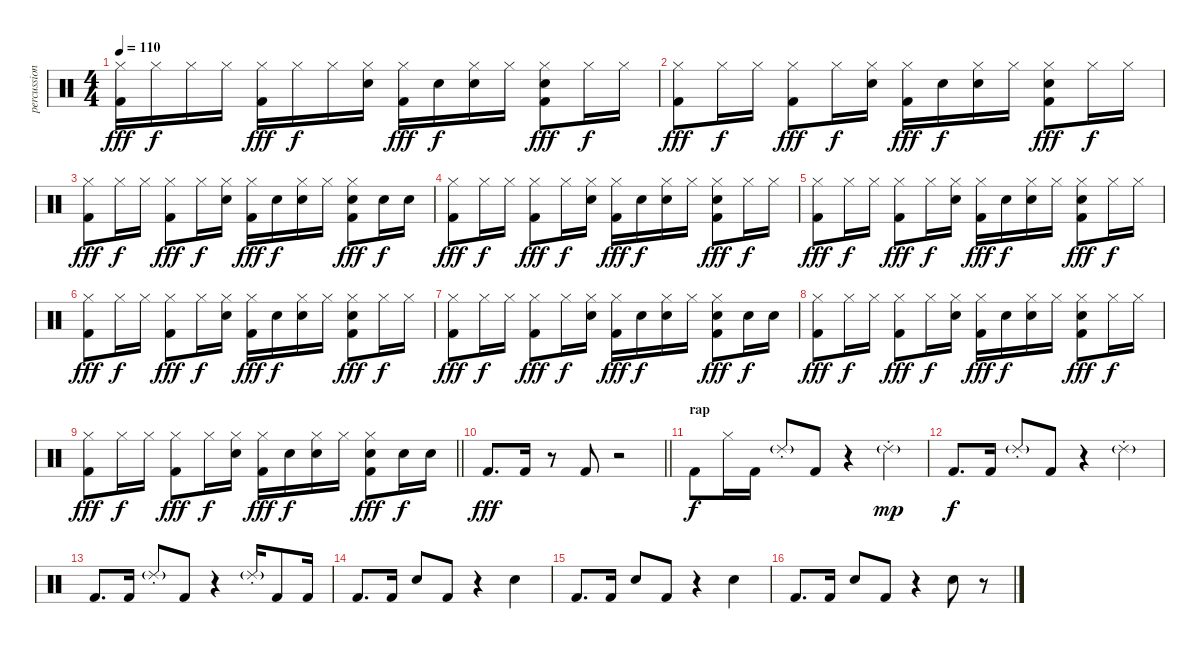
\track ("percussion []" "percussion") {instrument percussion}
\staff {score}
\articulation defaults
\ts (4 4)
\tempo 110
\clef neutral
\ks c
("Hi-Hat (closed)" "Kick (hit) 2").16{dy fff} "Hi-Hat (closed)".16{dy f} "Hi-Hat (closed)".16 "Hi-Hat (closed)".16 ("Hi-Hat (closed)" "Kick (hit) 2").16{dy fff} "Hi-Hat (closed)".16{dy f} "Hi-Hat (closed)".16 ("Electric Snare (hit)" "Hi-Hat (closed)").16 ("Hi-Hat (closed)" "Kick (hit) 2").16{dy fff} "Electric Snare (hit)".16{dy f} ("Electric Snare (hit)" "Hi-Hat (closed)").16 "Hi-Hat (closed)".16 ("Electric Snare (hit)" "Hi-Hat (closed)" "Kick (hit) 2").8{dy fff} "Hi-Hat (closed)".16{dy f} "Hi-Hat (closed)".16 |
("Hi-Hat (closed)" "Kick (hit) 2").8{dy fff} "Hi-Hat (closed)".16{dy f} "Hi-Hat (closed)".16 ("Hi-Hat (closed)" "Kick (hit) 2").8{dy fff} "Hi-Hat (closed)".16{dy f} ("Electric Snare (hit)" "Hi-Hat (closed)").16 ("Hi-Hat (closed)" "Kick (hit) 2").16{dy fff} "Electric Snare (hit)".16{dy f} ("Electric Snare (hit)" "Hi-Hat (closed)").16 "Hi-Hat (closed)".16 ("Electric Snare (hit)" "Hi-Hat (closed)" "Kick (hit) 2").8{dy fff} "Hi-Hat (closed)".16{dy f} "Hi-Hat (closed)".16 |
("Hi-Hat (closed)" "Kick (hit) 2").8{dy fff} "Hi-Hat (closed)".16{dy f} "Hi-Hat (closed)".16 ("Hi-Hat (closed)" "Kick (hit) 2").8{dy fff} "Hi-Hat (closed)".16{dy f} ("Electric Snare (hit)" "Hi-Hat (closed)").16 ("Hi-Hat (closed)" "Kick (hit) 2").16{dy fff} "Electric Snare (hit)".16{dy f} ("Electric Snare (hit)" "Hi-Hat (closed)").16 "Hi-Hat (closed)".16 ("Electric Snare (hit)" "Hi-Hat (closed)" "Kick (hit) 2").8{dy fff} "Electric Snare (hit)".16{dy f} "Electric Snare (hit)".16 |
("Hi-Hat (closed)" "Kick (hit) 2").8{dy fff} "Hi-Hat (closed)".16{dy f} "Hi-Hat (closed)".16 ("Hi-Hat (closed)" "Kick (hit) 2").8{dy fff} "Hi-Hat (closed)".16{dy f} ("Electric Snare (hit)" "Hi-Hat (closed)").16 ("Hi-Hat (closed)" "Kick (hit) 2").16{dy fff} "Electric Snare (hit)".16{dy f} ("Electric Snare (hit)" "Hi-Hat (closed)").16 "Hi-Hat (closed)".16 ("Electric Snare (hit)" "Hi-Hat (closed)" "Kick (hit) 2").8{dy fff} "Hi-Hat (closed)".16{dy f} "Hi-Hat (closed)".16 |
("Hi-Hat (closed)" "Kick (hit) 2").8{dy fff} "Hi-Hat (closed)".16{dy f} "Hi-Hat (closed)".16 ("Hi-Hat (closed)" "Kick (hit) 2").8{dy fff} "Hi-Hat (closed)".16{dy f} ("Electric Snare (hit)" "Hi-Hat (closed)").16 ("Hi-Hat (closed)" "Kick (hit) 2").16{dy fff} "Electric Snare (hit)".16{dy f} ("Electric Snare (hit)" "Hi-Hat (closed)").16 "Hi-Hat (closed)".16 ("Electric Snare (hit)" "Hi-Hat (closed)" "Kick (hit) 2").8{dy fff} "Hi-Hat (closed)".16{dy f} "Hi-Hat (closed)".16 |
("Hi-Hat (closed)" "Kick (hit) 2").8{dy fff} "Hi-Hat (closed)".16{dy f} "Hi-Hat (closed)".16 ("Hi-Hat (closed)" "Kick (hit) 2").8{dy fff} "Hi-Hat (closed)".16{dy f} ("Electric Snare (hit)" "Hi-Hat (closed)").16 ("Hi-Hat (closed)" "Kick (hit) 2").16{dy fff} "Electric Snare (hit)".16{dy f} ("Electric Snare (hit)" "Hi-Hat (closed)").16 "Hi-Hat (closed)".16 ("Electric Snare (hit)" "Hi-Hat (closed)" "Kick (hit) 2").8{dy fff} "Hi-Hat (closed)".16{dy f} "Hi-Hat (closed)".16 |
("Hi-Hat (closed)" "Kick (hit) 2").8{dy fff} "Hi-Hat (closed)".16{dy f} "Hi-Hat (closed)".16 ("Hi-Hat (closed)" "Kick (hit) 2").8{dy fff} "Hi-Hat (closed)".16{dy f} ("Electric Snare (hit)" "Hi-Hat (closed)").16 ("Hi-Hat (closed)" "Kick (hit) 2").16{dy fff} "Electric Snare (hit)".16{dy f} ("Electric Snare (hit)" "Hi-Hat (closed)").16 "Hi-Hat (closed)".16 ("Electric Snare (hit)" "Hi-Hat (closed)" "Kick (hit) 2").8{dy fff} "Electric Snare (hit)".16{dy f} "Electric Snare (hit)".16 |
("Hi-Hat (closed)" "Kick (hit) 2").8{dy fff} "Hi-Hat (closed)".16{dy f} "Hi-Hat (closed)".16 ("Hi-Hat (closed)" "Kick (hit) 2").8{dy fff} "Hi-Hat (closed)".16{dy f} ("Electric Snare (hit)" "Hi-Hat (closed)").16 ("Hi-Hat (closed)" "Kick (hit) 2").16{dy fff} "Electric Snare (hit)".16{dy f} ("Electric Snare (hit)" "Hi-Hat (closed)").16 "Hi-Hat (closed)".16 ("Electric Snare (hit)" "Hi-Hat (closed)" "Kick (hit) 2").8{dy fff} "Hi-Hat (closed)".16{dy f} "Hi-Hat (closed)".16 |
\barLineRight lightlight
("Hi-Hat (closed)" "Kick (hit) 2").8{dy fff} "Hi-Hat (closed)".16{dy f} "Hi-Hat (closed)".16 ("Hi-Hat (closed)" "Kick (hit) 2").8{dy fff} "Hi-Hat (closed)".16{dy f} ("Electric Snare (hit)" "Hi-Hat (closed)").16 ("Hi-Hat (closed)" "Kick (hit) 2").16{dy fff} "Electric Snare (hit)".16{dy f} ("Electric Snare (hit)" "Hi-Hat (closed)").16 "Hi-Hat (closed)".16 ("Electric Snare (hit)" "Hi-Hat (closed)" "Kick (hit) 2").8{dy fff} "Electric Snare (hit)".16{dy f} "Electric Snare (hit)".16 |
\barLineRight lightlight "Kick (hit) 2".8{d dy fff} "Kick (hit) 2".16
r.8 "Kick (hit) 2".8 r.2 |
\section ("" "rap")
"Kick (hit) 2".8{dy f} "Hi-Hat (closed)".16 "Kick (hit) 2".16 "Ride (choke) 2"{g}.8 "Kick (hit) 2".8 r.4 "Ride (choke) 2"{g}.4{dy mp} |
"Kick (hit) 2".8{d dy f} "Kick (hit) 2".16 "Ride (choke) 2"{g}.8 "Kick (hit) 2".8 r.4 "Ride (choke) 2"{g}.4 |
"Kick (hit) 2".8{d} "Kick (hit) 2".16 "Ride (choke) 2"{g}.8 "Kick (hit) 2".8 r.4 "Ride (choke) 2"{g}.16 "Kick (hit) 2".8 "Kick (hit) 2".16 |
"Kick (hit) 2".8{d} "Kick (hit) 2".16 "Electric Snare (hit)".8 "Kick (hit) 2".8 r.4 "Electric Snare (hit)".4 |
"Kick (hit) 2".8{d} "Kick (hit) 2".16 "Electric Snare (hit)".8 "Kick (hit) 2".8 r.4 "Electric Snare (hit)".4 |
"Kick (hit) 2".8{d} "Kick (hit) 2".16 "Electric Snare (hit)".8 "Kick (hit) 2".8 r.4 "Electric Snare (hit)".8 r.8
